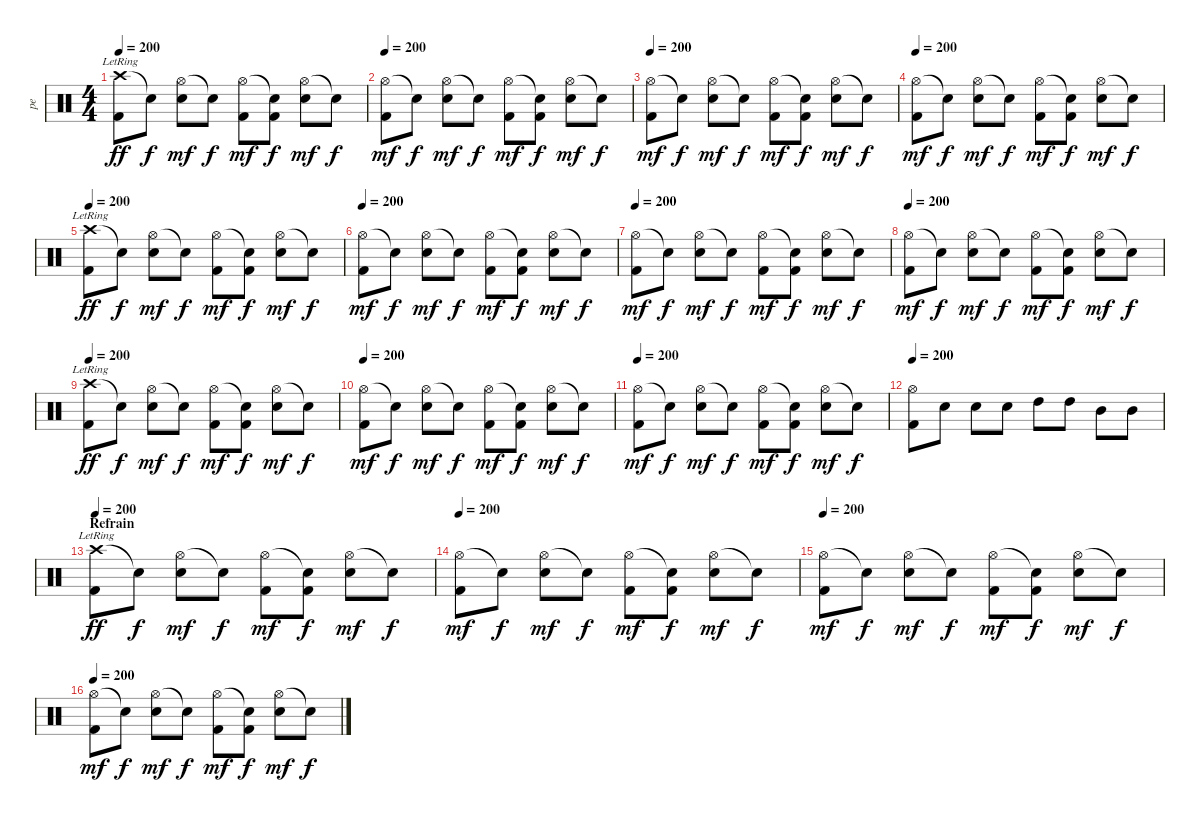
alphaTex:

\track ("pe" "pe") {instrument percussion}
\staff {score}
\articulation defaults
\ts (4 4)
\tempo 200
\clef neutral
\ks c
("Crash high (hit)"{lr} "Kick (hit) 2").8{dy ff} "Snare (hit)"{t}.8{dy f} ("Hi-Hat (open)" "Snare (hit) 2").8{dy mf} "Snare (hit)"{t}.8{dy f} ("Hi-Hat (open)" "Kick (hit) 2").8{dy mf} ("Snare (hit)"{t} "Kick (hit) 2").8{dy f} ("Hi-Hat (open)" "Snare (hit) 2").8{dy mf} "Snare (hit)"{t}.8{dy f} |
\tempo 200
("Hi-Hat (open)" "Kick (hit) 2").8{dy mf} "Snare (hit)"{t}.8{dy f} ("Hi-Hat (open)" "Snare (hit) 2").8{dy mf} "Snare (hit)"{t}.8{dy f} ("Hi-Hat (open)" "Kick (hit) 2").8{dy mf} ("Snare (hit)"{t} "Kick (hit) 2").8{dy f} ("Hi-Hat (open)" "Snare (hit) 2").8{dy mf} "Snare (hit)"{t}.8{dy f} |
\tempo 200
("Hi-Hat (open)" "Kick (hit) 2").8{dy mf} "Snare (hit)"{t}.8{dy f} ("Hi-Hat (open)" "Snare (hit) 2").8{dy mf} "Snare (hit)"{t}.8{dy f} ("Hi-Hat (open)" "Kick (hit) 2").8{dy mf} ("Snare (hit)"{t} "Kick (hit) 2").8{dy f} ("Hi-Hat (open)" "Snare (hit) 2").8{dy mf} "Snare (hit)"{t}.8{dy f} |
\tempo 200
("Hi-Hat (open)" "Kick (hit) 2").8{dy mf} "Snare (hit)"{t}.8{dy f} ("Hi-Hat (open)" "Snare (hit) 2").8{dy mf} "Snare (hit)"{t}.8{dy f} ("Hi-Hat (open)" "Kick (hit) 2").8{dy mf} ("Snare (hit)"{t} "Kick (hit) 2").8{dy f} ("Hi-Hat (open)" "Snare (hit) 2").8{dy mf} "Snare (hit)"{t}.8{dy f} |
\tempo 200
("Crash high (hit)"{lr} "Kick (hit) 2").8{dy ff} "Snare (hit)"{t}.8{dy f} ("Hi-Hat (open)" "Snare (hit) 2").8{dy mf} "Snare (hit)"{t}.8{dy f} ("Hi-Hat (open)" "Kick (hit) 2").8{dy mf} ("Snare (hit)"{t} "Kick (hit) 2").8{dy f} ("Hi-Hat (open)" "Snare (hit) 2").8{dy mf} "Snare (hit)"{t}.8{dy f} |
\tempo 200
("Hi-Hat (open)" "Kick (hit) 2").8{dy mf} "Snare (hit)"{t}.8{dy f} ("Hi-Hat (open)" "Snare (hit) 2").8{dy mf} "Snare (hit)"{t}.8{dy f} ("Hi-Hat (open)" "Kick (hit) 2").8{dy mf} ("Snare (hit)"{t} "Kick (hit) 2").8{dy f} ("Hi-Hat (open)" "Snare (hit) 2").8{dy mf} "Snare (hit)"{t}.8{dy f} |
\tempo 200
("Hi-Hat (open)" "Kick (hit) 2").8{dy mf} "Snare (hit)"{t}.8{dy f} ("Hi-Hat (open)" "Snare (hit) 2").8{dy mf} "Snare (hit)"{t}.8{dy f} ("Hi-Hat (open)" "Kick (hit) 2").8{dy mf} ("Snare (hit)"{t} "Kick (hit) 2").8{dy f} ("Hi-Hat (open)" "Snare (hit) 2").8{dy mf} "Snare (hit)"{t}.8{dy f} |
\tempo 200
("Hi-Hat (open)" "Kick (hit) 2").8{dy mf} "Snare (hit)"{t}.8{dy f} ("Hi-Hat (open)" "Snare (hit) 2").8{dy mf} "Snare (hit)"{t}.8{dy f} ("Hi-Hat (open)" "Kick (hit) 2").8{dy mf} ("Snare (hit)"{t} "Kick (hit) 2").8{dy f} ("Hi-Hat (open)" "Snare (hit) 2").8{dy mf} "Snare (hit)"{t}.8{dy f} |
\tempo 200
("Crash high (hit)"{lr} "Kick (hit) 2").8{dy ff} "Snare (hit)"{t}.8{dy f} ("Hi-Hat (open)" "Snare (hit) 2").8{dy mf} "Snare (hit)"{t}.8{dy f} ("Hi-Hat (open)" "Kick (hit) 2").8{dy mf} ("Snare (hit)"{t} "Kick (hit) 2").8{dy f} ("Hi-Hat (open)" "Snare (hit) 2").8{dy mf} "Snare (hit)"{t}.8{dy f} |
\tempo 200
("Hi-Hat (open)" "Kick (hit) 2").8{dy mf} "Snare (hit)"{t}.8{dy f} ("Hi-Hat (open)" "Snare (hit) 2").8{dy mf} "Snare (hit)"{t}.8{dy f} ("Hi-Hat (open)" "Kick (hit) 2").8{dy mf} ("Snare (hit)"{t} "Kick (hit) 2").8{dy f} ("Hi-Hat (open)" "Snare (hit) 2").8{dy mf} "Snare (hit)"{t}.8{dy f} |
\tempo 200
("Hi-Hat (open)" "Kick (hit) 2").8{dy mf} "Snare (hit)"{t}.8{dy f} ("Hi-Hat (open)" "Snare (hit) 2").8{dy mf} "Snare (hit)"{t}.8{dy f} ("Hi-Hat (open)" "Kick (hit) 2").8{dy mf} ("Snare (hit)"{t} "Kick (hit) 2").8{dy f} ("Hi-Hat (open)" "Snare (hit) 2").8{dy mf} "Snare (hit)"{t}.8{dy f} |
\tempo 200
("Hi-Hat (open)" "Kick (hit) 2").8 "Electric Snare (hit)".8 "Electric Snare (hit)".8 "Electric Snare (hit)".8 "High Tom (hit)".8 "High Tom (hit)".8 "Mid Tom (hit)".8 "Mid Tom (hit)".8 |
\section ("" "Refrain")
\tempo 200
("Crash high (hit)"{lr} "Kick (hit) 2").8{dy ff} "Snare (hit)"{t}.8{dy f} ("Hi-Hat (open)" "Snare (hit) 2").8{dy mf} "Snare (hit)"{t}.8{dy f} ("Hi-Hat (open)" "Kick (hit) 2").8{dy mf} ("Snare (hit)"{t} "Kick (hit) 2").8{dy f} ("Hi-Hat (open)" "Snare (hit) 2").8{dy mf} "Snare (hit)"{t}.8{dy f} |
\tempo 200
("Hi-Hat (open)" "Kick (hit) 2").8{dy mf} "Snare (hit)"{t}.8{dy f} ("Hi-Hat (open)" "Snare (hit) 2").8{dy mf} "Snare (hit)"{t}.8{dy f} ("Hi-Hat (open)" "Kick (hit) 2").8{dy mf} ("Snare (hit)"{t} "Kick (hit) 2").8{dy f} ("Hi-Hat (open)" "Snare (hit) 2").8{dy mf} "Snare (hit)"{t}.8{dy f} |
\tempo 200
("Hi-Hat (open)" "Kick (hit) 2").8{dy mf} "Snare (hit)"{t}.8{dy f} ("Hi-Hat (open)" "Snare (hit) 2").8{dy mf} "Snare (hit)"{t}.8{dy f} ("Hi-Hat (open)" "Kick (hit) 2").8{dy mf} ("Snare (hit)"{t} "Kick (hit) 2").8{dy f} ("Hi-Hat (open)" "Snare (hit) 2").8{dy mf} "Snare (hit)"{t}.8{dy f} |
\tempo 200
("Hi-Hat (open)" "Kick (hit) 2").8{dy mf} "Snare (hit)"{t}.8{dy f} ("Hi-Hat (open)" "Snare (hit) 2").8{dy mf} "Snare (hit)"{t}.8{dy f} ("Hi-Hat (open)" "Kick (hit) 2").8{dy mf} ("Snare (hit)"{t} "Kick (hit) 2").8{dy f} ("Hi-Hat (open)" "Snare (hit) 2").8{dy mf} "Snare (hit)"{t}.8{dy f}
